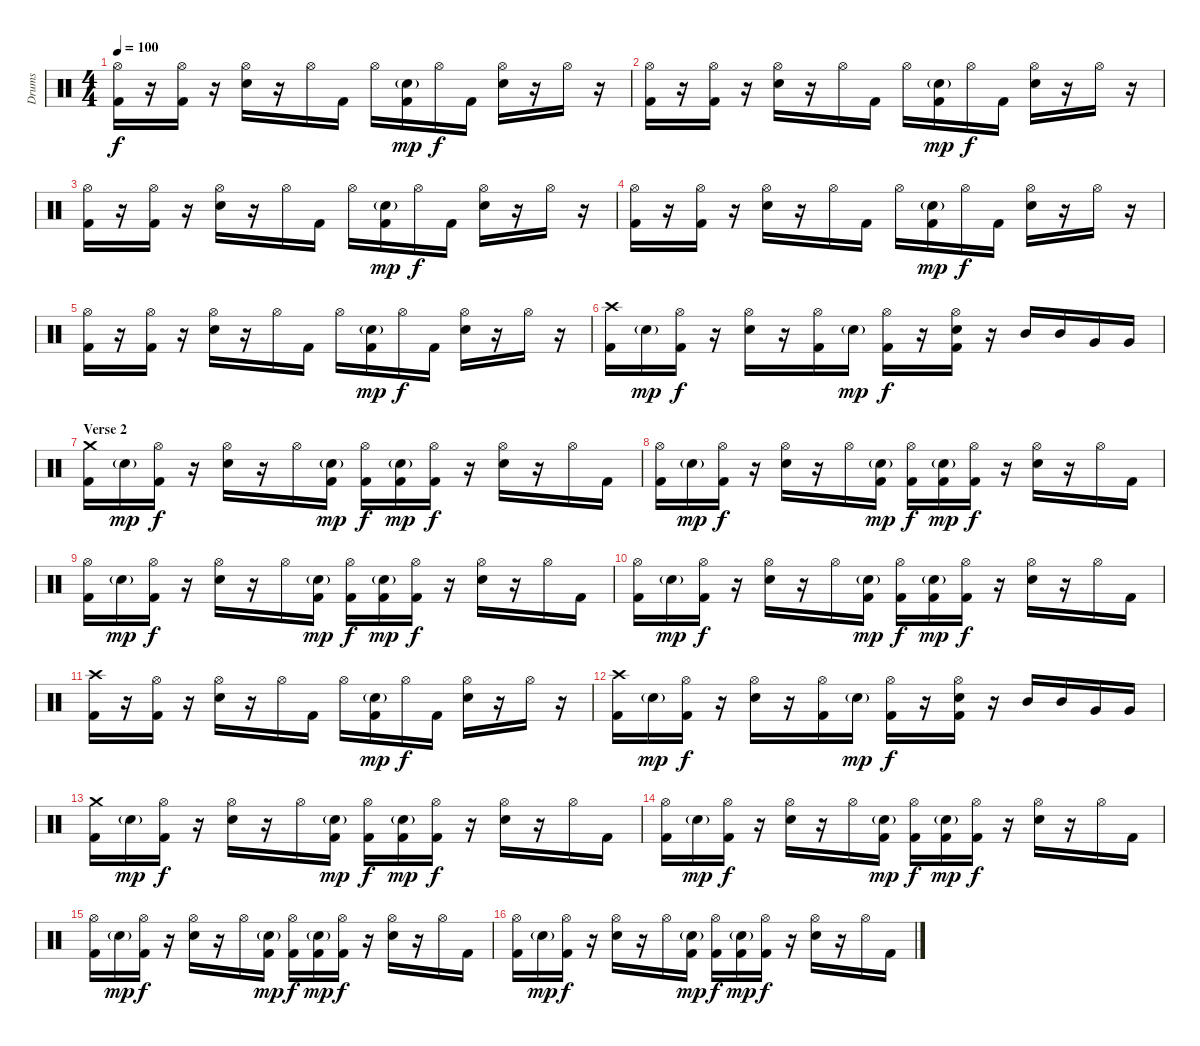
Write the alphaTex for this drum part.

\track ("Drums" "Drums") {instrument percussion}
\staff {score}
\articulation defaults
\ts (4 4)
\tempo 100
\clef neutral
\ks c
("Hi-Hat (open)" "Kick (hit) 2").16{dy f} r.16 ("Hi-Hat (open)" "Kick (hit) 2").16 r.16 ("Hi-Hat (open)" "Snare (hit) 2").16 r.16 "Hi-Hat (open)".16 "Kick (hit) 2".16 "Hi-Hat (open)".16 ("Snare (hit) 2"{g} "Kick (hit) 2").16{dy mp} "Hi-Hat (open)".16{dy f} "Kick (hit) 2".16 ("Hi-Hat (open)" "Snare (hit) 2").16 r.16 "Hi-Hat (open)".16 r.16 |
("Hi-Hat (open)" "Kick (hit) 2").16 r.16 ("Hi-Hat (open)" "Kick (hit) 2").16 r.16 ("Hi-Hat (open)" "Snare (hit) 2").16 r.16 "Hi-Hat (open)".16 "Kick (hit) 2".16 "Hi-Hat (open)".16 ("Snare (hit) 2"{g} "Kick (hit) 2").16{dy mp} "Hi-Hat (open)".16{dy f} "Kick (hit) 2".16 ("Hi-Hat (open)" "Snare (hit) 2").16 r.16 "Hi-Hat (open)".16 r.16 |
("Hi-Hat (open)" "Kick (hit) 2").16 r.16 ("Hi-Hat (open)" "Kick (hit) 2").16 r.16 ("Hi-Hat (open)" "Snare (hit) 2").16 r.16 "Hi-Hat (open)".16 "Kick (hit) 2".16 "Hi-Hat (open)".16 ("Snare (hit) 2"{g} "Kick (hit) 2").16{dy mp} "Hi-Hat (open)".16{dy f} "Kick (hit) 2".16 ("Hi-Hat (open)" "Snare (hit) 2").16 r.16 "Hi-Hat (open)".16 r.16 |
("Hi-Hat (open)" "Kick (hit) 2").16 r.16 ("Hi-Hat (open)" "Kick (hit) 2").16 r.16 ("Hi-Hat (open)" "Snare (hit) 2").16 r.16 "Hi-Hat (open)".16 "Kick (hit) 2".16 "Hi-Hat (open)".16 ("Snare (hit) 2"{g} "Kick (hit) 2").16{dy mp} "Hi-Hat (open)".16{dy f} "Kick (hit) 2".16 ("Hi-Hat (open)" "Snare (hit) 2").16 r.16 "Hi-Hat (open)".16 r.16 |
("Hi-Hat (open)" "Kick (hit) 2").16 r.16 ("Hi-Hat (open)" "Kick (hit) 2").16 r.16 ("Hi-Hat (open)" "Snare (hit) 2").16 r.16 "Hi-Hat (open)".16 "Kick (hit) 2".16 "Hi-Hat (open)".16 ("Snare (hit) 2"{g} "Kick (hit) 2").16{dy mp} "Hi-Hat (open)".16{dy f} "Kick (hit) 2".16 ("Hi-Hat (open)" "Snare (hit) 2").16 r.16 "Hi-Hat (open)".16 r.16 |
("Crash high (hit)" "Kick (hit) 2").16 "Snare (hit) 2"{g}.16{dy mp} ("Hi-Hat (open)" "Kick (hit) 2").16{dy f} r.16 ("Hi-Hat (open)" "Snare (hit) 2").16 r.16 ("Hi-Hat (open)" "Kick (hit) 2").16 "Snare (hit) 2"{g}.16{dy mp} ("Hi-Hat (open)" "Kick (hit) 2").16{dy f} r.16 ("Hi-Hat (open)" "Snare (hit) 2" "Kick (hit) 2").16 r.16 "Mid Tom (hit)".16 "Mid Tom (hit)".16 "Very Low Tom (hit)".16 "Very Low Tom (hit)".16 |
\section ("" "Verse 2")
("Crash medium (hit)" "Kick (hit) 2").16 "Snare (hit) 2"{g}.16{dy mp} ("Hi-Hat (open)" "Kick (hit) 2").16{dy f} r.16 ("Hi-Hat (open)" "Snare (hit) 2").16 r.16 "Hi-Hat (open)".16 ("Snare (hit) 2"{g} "Kick (hit) 2").16{dy mp} ("Hi-Hat (open)" "Kick (hit) 2").16{dy f} ("Snare (hit) 2"{g} "Kick (hit) 2").16{dy mp} ("Hi-Hat (open)" "Kick (hit) 2").16{dy f} r.16 ("Hi-Hat (open)" "Snare (hit) 2").16 r.16 "Hi-Hat (open)".16 "Kick (hit) 2".16 |
("Hi-Hat (open)" "Kick (hit) 2").16 "Snare (hit) 2"{g}.16{dy mp} ("Hi-Hat (open)" "Kick (hit) 2").16{dy f} r.16 ("Hi-Hat (open)" "Snare (hit) 2").16 r.16 "Hi-Hat (open)".16 ("Snare (hit) 2"{g} "Kick (hit) 2").16{dy mp} ("Hi-Hat (open)" "Kick (hit) 2").16{dy f} ("Snare (hit) 2"{g} "Kick (hit) 2").16{dy mp} ("Hi-Hat (open)" "Kick (hit) 2").16{dy f} r.16 ("Hi-Hat (open)" "Snare (hit) 2").16 r.16 "Hi-Hat (open)".16 "Kick (hit) 2".16 |
("Hi-Hat (open)" "Kick (hit) 2").16 "Snare (hit) 2"{g}.16{dy mp} ("Hi-Hat (open)" "Kick (hit) 2").16{dy f} r.16 ("Hi-Hat (open)" "Snare (hit) 2").16 r.16 "Hi-Hat (open)".16 ("Snare (hit) 2"{g} "Kick (hit) 2").16{dy mp} ("Hi-Hat (open)" "Kick (hit) 2").16{dy f} ("Snare (hit) 2"{g} "Kick (hit) 2").16{dy mp} ("Hi-Hat (open)" "Kick (hit) 2").16{dy f} r.16 ("Hi-Hat (open)" "Snare (hit) 2").16 r.16 "Hi-Hat (open)".16 "Kick (hit) 2".16 |
("Hi-Hat (open)" "Kick (hit) 2").16 "Snare (hit) 2"{g}.16{dy mp} ("Hi-Hat (open)" "Kick (hit) 2").16{dy f} r.16 ("Hi-Hat (open)" "Snare (hit) 2").16 r.16 "Hi-Hat (open)".16 ("Snare (hit) 2"{g} "Kick (hit) 2").16{dy mp} ("Hi-Hat (open)" "Kick (hit) 2").16{dy f} ("Snare (hit) 2"{g} "Kick (hit) 2").16{dy mp} ("Hi-Hat (open)" "Kick (hit) 2").16{dy f} r.16 ("Hi-Hat (open)" "Snare (hit) 2").16 r.16 "Hi-Hat (open)".16 "Kick (hit) 2".16 |
("Crash high (hit)" "Kick (hit) 2").16 r.16 ("Hi-Hat (open)" "Kick (hit) 2").16 r.16 ("Hi-Hat (open)" "Snare (hit) 2").16 r.16 "Hi-Hat (open)".16 "Kick (hit) 2".16 "Hi-Hat (open)".16 ("Snare (hit) 2"{g} "Kick (hit) 2").16{dy mp} "Hi-Hat (open)".16{dy f} "Kick (hit) 2".16 ("Hi-Hat (open)" "Snare (hit) 2").16 r.16 "Hi-Hat (open)".16 r.16 |
("Crash high (hit)" "Kick (hit) 2").16 "Snare (hit) 2"{g}.16{dy mp} ("Hi-Hat (open)" "Kick (hit) 2").16{dy f} r.16 ("Hi-Hat (open)" "Snare (hit) 2").16 r.16 ("Hi-Hat (open)" "Kick (hit) 2").16 "Snare (hit) 2"{g}.16{dy mp} ("Hi-Hat (open)" "Kick (hit) 2").16{dy f} r.16 ("Hi-Hat (open)" "Snare (hit) 2" "Kick (hit) 2").16 r.16 "Mid Tom (hit)".16 "Mid Tom (hit)".16 "Very Low Tom (hit)".16 "Very Low Tom (hit)".16 |
("Crash medium (hit)" "Kick (hit) 2").16 "Snare (hit) 2"{g}.16{dy mp} ("Hi-Hat (open)" "Kick (hit) 2").16{dy f} r.16 ("Hi-Hat (open)" "Snare (hit) 2").16 r.16 "Hi-Hat (open)".16 ("Snare (hit) 2"{g} "Kick (hit) 2").16{dy mp} ("Hi-Hat (open)" "Kick (hit) 2").16{dy f} ("Snare (hit) 2"{g} "Kick (hit) 2").16{dy mp} ("Hi-Hat (open)" "Kick (hit) 2").16{dy f} r.16 ("Hi-Hat (open)" "Snare (hit) 2").16 r.16 "Hi-Hat (open)".16 "Kick (hit) 2".16 |
("Hi-Hat (open)" "Kick (hit) 2").16 "Snare (hit) 2"{g}.16{dy mp} ("Hi-Hat (open)" "Kick (hit) 2").16{dy f} r.16 ("Hi-Hat (open)" "Snare (hit) 2").16 r.16 "Hi-Hat (open)".16 ("Snare (hit) 2"{g} "Kick (hit) 2").16{dy mp} ("Hi-Hat (open)" "Kick (hit) 2").16{dy f} ("Snare (hit) 2"{g} "Kick (hit) 2").16{dy mp} ("Hi-Hat (open)" "Kick (hit) 2").16{dy f} r.16 ("Hi-Hat (open)" "Snare (hit) 2").16 r.16 "Hi-Hat (open)".16 "Kick (hit) 2".16 |
("Hi-Hat (open)" "Kick (hit) 2").16 "Snare (hit) 2"{g}.16{dy mp} ("Hi-Hat (open)" "Kick (hit) 2").16{dy f} r.16 ("Hi-Hat (open)" "Snare (hit) 2").16 r.16 "Hi-Hat (open)".16 ("Snare (hit) 2"{g} "Kick (hit) 2").16{dy mp} ("Hi-Hat (open)" "Kick (hit) 2").16{dy f} ("Snare (hit) 2"{g} "Kick (hit) 2").16{dy mp} ("Hi-Hat (open)" "Kick (hit) 2").16{dy f} r.16 ("Hi-Hat (open)" "Snare (hit) 2").16 r.16 "Hi-Hat (open)".16 "Kick (hit) 2".16 |
("Hi-Hat (open)" "Kick (hit) 2").16 "Snare (hit) 2"{g}.16{dy mp} ("Hi-Hat (open)" "Kick (hit) 2").16{dy f} r.16 ("Hi-Hat (open)" "Snare (hit) 2").16 r.16 "Hi-Hat (open)".16 ("Snare (hit) 2"{g} "Kick (hit) 2").16{dy mp} ("Hi-Hat (open)" "Kick (hit) 2").16{dy f} ("Snare (hit) 2"{g} "Kick (hit) 2").16{dy mp} ("Hi-Hat (open)" "Kick (hit) 2").16{dy f} r.16 ("Hi-Hat (open)" "Snare (hit) 2").16 r.16 "Hi-Hat (open)".16 "Kick (hit) 2".16
